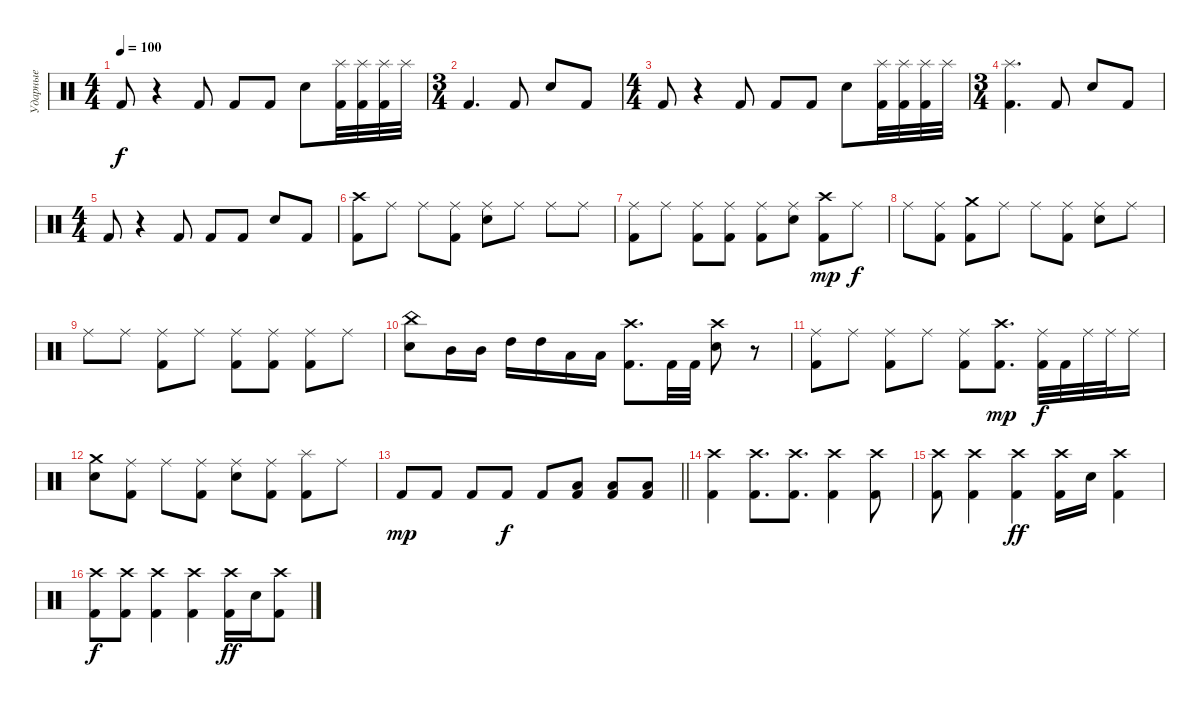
\track ("Ударные" "Ударные") {instrument percussion}
\staff {score}
\articulation defaults
\ts (4 4)
\tempo 100
\clef neutral
\ks c "Kick (hit) 2".8{dy f}
r.4 "Kick (hit) 2".8 "Kick (hit) 2".8 "Kick (hit) 2".8 "Electric Snare (hit)".8 ("Splash (hit)" "Kick (hit) 2").32 ("Splash (hit)" "Kick (hit) 2").32 ("Splash (hit)" "Kick (hit) 2").32 "Splash (hit)".32 |
\ts (3 4)
"Kick (hit) 2".4{d} "Kick (hit) 2".8 "Electric Snare (hit)".8 "Kick (hit) 2".8 |
\ts (4 4)
"Kick (hit) 2".8 r.4 "Kick (hit) 2".8 "Kick (hit) 2".8 "Kick (hit) 2".8 "Electric Snare (hit)".8 ("Splash (hit)" "Kick (hit) 2").32 ("Splash (hit)" "Kick (hit) 2").32 ("Splash (hit)" "Kick (hit) 2").32 "Splash (hit)".32 |
\ts (3 4)
("Splash (hit)" "Kick (hit) 2").4{d} "Kick (hit) 2".8 "Electric Snare (hit)".8 "Kick (hit) 2".8 |
\ts (4 4)
"Kick (hit) 2".8 r.4 "Kick (hit) 2".8 "Kick (hit) 2".8 "Kick (hit) 2".8 "Electric Snare (hit)".8 "Kick (hit) 2".8 |
("Crash high (hit)" "Kick (hit) 2").8 "Ride (middle)".8 "Ride (middle)".8 ("Ride (middle)" "Kick (hit) 2").8 ("Ride (middle)" "Electric Snare (hit)").8 "Ride (middle)".8 "Ride (middle)".8 "Ride (middle)".8 |
("Ride (middle)" "Kick (hit) 2").8 "Ride (middle)".8 ("Ride (middle)" "Kick (hit) 2").8 ("Ride (middle)" "Kick (hit) 2").8 ("Ride (middle)" "Kick (hit) 2").8 ("Ride (middle)" "Electric Snare (hit)").8 ("Crash high (hit)" "Kick (hit) 2").8{dy mp} "Ride (middle)".8{dy f} |
"Ride (middle)".8 ("Ride (middle)" "Kick (hit) 2").8 ("Crash medium (hit)" "Kick (hit) 2").8 "Ride (middle)".8 "Ride (middle)".8 ("Ride (middle)" "Kick (hit) 2").8 ("Ride (middle)" "Electric Snare (hit)").8 "Ride (middle)".8 |
"Ride (middle)".8 "Ride (middle)".8 ("Ride (middle)" "Kick (hit) 2").8 "Ride (middle)".8 ("Ride (middle)" "Kick (hit) 2").8 ("Ride (middle)" "Kick (hit) 2").8 ("Ride (middle)" "Kick (hit) 2").8 "Ride (middle)".8 |
("China (hit)" "Electric Snare (hit)").8 "Mid Tom (hit)".16 "Mid Tom (hit)".16 "High Tom (hit)".16 "High Tom (hit)".16 "Low Tom (hit)".16 "Low Tom (hit)".16 ("Crash high (hit)" "Kick (hit) 2").8{d} "Kick (hit) 2".32 "Kick (hit) 2".32 ("Crash high (hit)" "Electric Snare (hit)").8 r.8 |
("Ride (middle)" "Kick (hit) 2").8 "Ride (middle)".8 ("Ride (middle)" "Kick (hit) 2").8 "Ride (middle)".8 ("Ride (middle)" "Kick (hit) 2").8 ("Crash high (hit)" "Kick (hit) 2").8{d dy mp} ("Ride (middle)" "Kick (hit) 2").32{dy f} "Kick (hit) 2".32 "Ride (middle)".32 "Ride (middle)".32 "Ride (middle)".16 |
("Crash medium (hit)" "Electric Snare (hit)").8 ("Ride (middle)" "Kick (hit) 2").8 "Ride (middle)".8 ("Ride (middle)" "Kick (hit) 2").8 ("Ride (middle)" "Electric Snare (hit)").8 ("Ride (middle)" "Kick (hit) 2").8 ("Splash (hit)" "Kick (hit) 2").8 "Ride (middle)".8 |
\barLineRight lightlight "Kick (hit) 2".8{dy mp} "Kick (hit) 2".8 "Kick (hit) 2".8 "Kick (hit) 2".8{dy f} "Kick (hit) 2".8
("Low Tom (hit)" "Kick (hit) 2").8 ("Low Tom (hit)" "Kick (hit) 2").8 ("Low Tom (hit)" "Kick (hit) 2").8 |
("Crash high (hit)" "Kick (hit) 2").4 ("Crash high (hit)" "Kick (hit) 2").8{d} ("Crash high (hit)" "Kick (hit) 2").8{d} ("Crash high (hit)" "Kick (hit) 2").4 ("Crash high (hit)" "Kick (hit) 2").8 |
("Crash high (hit)" "Kick (hit) 2").8 ("Crash high (hit)" "Kick (hit) 2").4 ("Crash high (hit)" "Kick (hit) 2").4{dy ff} ("Crash high (hit)" "Kick (hit) 2").16 "Snare (hit) 2".16 ("Crash high (hit)" "Kick (hit) 2").4 |
("Crash high (hit)" "Kick (hit) 2").8{dy f} ("Crash high (hit)" "Kick (hit) 2").8 ("Crash high (hit)" "Kick (hit) 2").4 ("Crash high (hit)" "Kick (hit) 2").4 ("Crash high (hit)" "Kick (hit) 2").16{dy ff} "Snare (hit) 2".16 ("Crash high (hit)" "Kick (hit) 2").8
